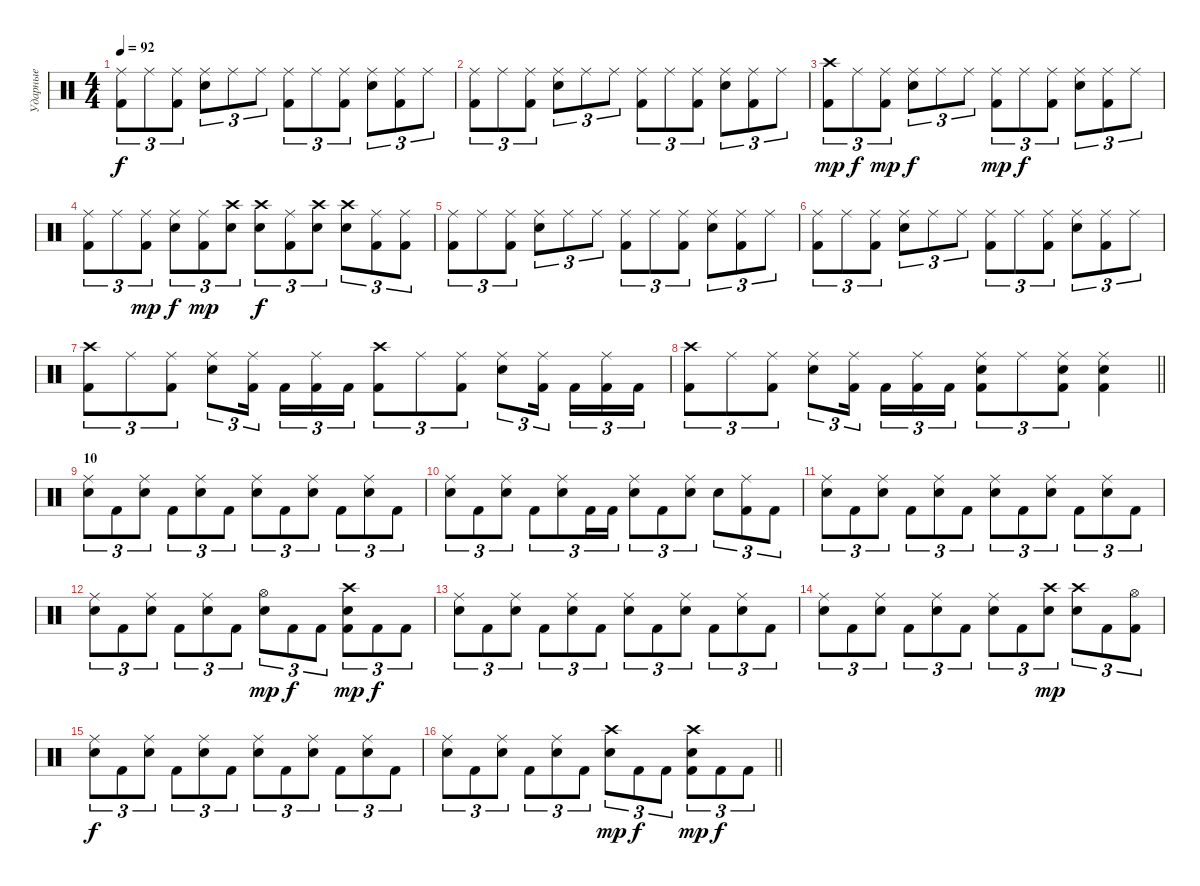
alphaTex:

\track ("Ударные" "Ударные") {instrument percussion}
\staff {score}
\articulation defaults
\ts (4 4)
\tempo 92
\clef neutral
\ks c
("Ride (middle)" "Kick (hit) 2").8{tu (3 2) dy f} "Ride (middle)".8{tu (3 2)} ("Ride (middle)" "Kick (hit) 2").8{tu (3 2)} ("Ride (middle)" "Electric Snare (hit)").8{tu (3 2)} "Ride (middle)".8{tu (3 2)} "Ride (middle)".8{tu (3 2)} ("Ride (middle)" "Kick (hit) 2").8{tu (3 2)} "Ride (middle)".8{tu (3 2)} ("Ride (middle)" "Kick (hit) 2").8{tu (3 2)} ("Ride (middle)" "Electric Snare (hit)").8{tu (3 2)} ("Ride (middle)" "Kick (hit) 2").8{tu (3 2)} "Ride (middle)".8{tu (3 2)} |
("Ride (middle)" "Kick (hit) 2").8{tu (3 2)} "Ride (middle)".8{tu (3 2)} ("Ride (middle)" "Kick (hit) 2").8{tu (3 2)} ("Ride (middle)" "Electric Snare (hit)").8{tu (3 2)} "Ride (middle)".8{tu (3 2)} "Ride (middle)".8{tu (3 2)} ("Ride (middle)" "Kick (hit) 2").8{tu (3 2)} "Ride (middle)".8{tu (3 2)} ("Ride (middle)" "Kick (hit) 2").8{tu (3 2)} ("Ride (middle)" "Electric Snare (hit)").8{tu (3 2)} ("Ride (middle)" "Kick (hit) 2").8{tu (3 2)} "Ride (middle)".8{tu (3 2)} |
("Crash high (hit)" "Kick (hit) 2").8{tu (3 2) dy mp} "Ride (middle)".8{tu (3 2) dy f} ("Ride (middle)" "Kick (hit) 2").8{tu (3 2) dy mp} ("Ride (middle)" "Electric Snare (hit)").8{tu (3 2) dy f} "Ride (middle)".8{tu (3 2)} "Ride (middle)".8{tu (3 2)} ("Ride (middle)" "Kick (hit) 2").8{tu (3 2) dy mp} "Ride (middle)".8{tu (3 2) dy f} ("Ride (middle)" "Kick (hit) 2").8{tu (3 2)} ("Ride (middle)" "Electric Snare (hit)").8{tu (3 2)} ("Ride (middle)" "Kick (hit) 2").8{tu (3 2)} "Ride (middle)".8{tu (3 2)} |
("Ride (middle)" "Kick (hit) 2").8{tu (3 2)} "Ride (middle)".8{tu (3 2)} ("Ride (middle)" "Kick (hit) 2").8{tu (3 2) dy mp} ("Ride (middle)" "Electric Snare (hit)").8{tu (3 2) dy f} ("Ride (middle)" "Kick (hit) 2").8{tu (3 2) dy mp} ("Crash high (hit)" "Electric Snare (hit)").8{tu (3 2)} ("Crash high (hit)" "Electric Snare (hit)").8{tu (3 2) dy f} ("Ride (middle)" "Kick (hit) 2").8{tu (3 2)} ("Crash high (hit)" "Electric Snare (hit)").8{tu (3 2)} ("Crash high (hit)" "Electric Snare (hit)").8{tu (3 2)} ("Ride (middle)" "Kick (hit) 2").8{tu (3 2)} ("Ride (middle)" "Kick (hit) 2").8{tu (3 2)} |
("Ride (middle)" "Kick (hit) 2").8{tu (3 2)} "Ride (middle)".8{tu (3 2)} ("Ride (middle)" "Kick (hit) 2").8{tu (3 2)} ("Ride (middle)" "Electric Snare (hit)").8{tu (3 2)} "Ride (middle)".8{tu (3 2)} "Ride (middle)".8{tu (3 2)} ("Ride (middle)" "Kick (hit) 2").8{tu (3 2)} "Ride (middle)".8{tu (3 2)} ("Ride (middle)" "Kick (hit) 2").8{tu (3 2)} ("Ride (middle)" "Electric Snare (hit)").8{tu (3 2)} ("Ride (middle)" "Kick (hit) 2").8{tu (3 2)} "Ride (middle)".8{tu (3 2)} |
("Ride (middle)" "Kick (hit) 2").8{tu (3 2)} "Ride (middle)".8{tu (3 2)} ("Ride (middle)" "Kick (hit) 2").8{tu (3 2)} ("Ride (middle)" "Electric Snare (hit)").8{tu (3 2)} "Ride (middle)".8{tu (3 2)} "Ride (middle)".8{tu (3 2)} ("Ride (middle)" "Kick (hit) 2").8{tu (3 2)} "Ride (middle)".8{tu (3 2)} ("Ride (middle)" "Kick (hit) 2").8{tu (3 2)} ("Ride (middle)" "Electric Snare (hit)").8{tu (3 2)} ("Ride (middle)" "Kick (hit) 2").8{tu (3 2)} "Ride (middle)".8{tu (3 2)} |
("Crash high (hit)" "Kick (hit) 2").8{tu (3 2)} "Ride (middle)".8{tu (3 2)} ("Ride (middle)" "Kick (hit) 2").8{tu (3 2)} ("Ride (middle)" "Electric Snare (hit)").8{tu (3 2)} ("Ride (middle)" "Kick (hit) 2").16{tu (3 2) beam splitsecondary} "Kick (hit) 2".16{tu (3 2)} ("Ride (middle)" "Kick (hit) 2").16{tu (3 2)} "Kick (hit) 2".16{tu (3 2)} ("Crash high (hit)" "Kick (hit) 2").8{tu (3 2)} "Ride (middle)".8{tu (3 2)} ("Ride (middle)" "Kick (hit) 2").8{tu (3 2)} ("Ride (middle)" "Electric Snare (hit)").8{tu (3 2)} ("Ride (middle)" "Kick (hit) 2").16{tu (3 2) beam splitsecondary} "Kick (hit) 2".16{tu (3 2)} ("Ride (middle)" "Kick (hit) 2").16{tu (3 2)} "Kick (hit) 2".16{tu (3 2)} |
\barLineRight lightlight
("Crash high (hit)" "Kick (hit) 2").8{tu (3 2)} "Ride (middle)".8{tu (3 2)} ("Ride (middle)" "Kick (hit) 2").8{tu (3 2)} ("Ride (middle)" "Electric Snare (hit)").8{tu (3 2)} ("Ride (middle)" "Kick (hit) 2").16{tu (3 2) beam splitsecondary} "Kick (hit) 2".16{tu (3 2)} ("Ride (middle)" "Kick (hit) 2").16{tu (3 2)} "Kick (hit) 2".16{tu (3 2)} ("Ride (middle)" "Electric Snare (hit)" "Kick (hit) 2").8{tu (3 2)} "Ride (middle)".8{tu (3 2)} ("Ride (middle)" "Electric Snare (hit)" "Kick (hit) 2").8{tu (3 2)} ("Ride (middle)" "Electric Snare (hit)" "Kick (hit) 2").4 |
\section ("" "10")
("Ride (middle)" "Electric Snare (hit)").8{tu (3 2)} "Kick (hit) 2".8{tu (3 2)} ("Ride (middle)" "Electric Snare (hit)").8{tu (3 2)} "Kick (hit) 2".8{tu (3 2)} ("Ride (middle)" "Electric Snare (hit)").8{tu (3 2)} "Kick (hit) 2".8{tu (3 2)} ("Ride (middle)" "Electric Snare (hit)").8{tu (3 2)} "Kick (hit) 2".8{tu (3 2)} ("Ride (middle)" "Electric Snare (hit)").8{tu (3 2)} "Kick (hit) 2".8{tu (3 2)} ("Ride (middle)" "Electric Snare (hit)").8{tu (3 2)} "Kick (hit) 2".8{tu (3 2)} |
("Ride (middle)" "Electric Snare (hit)").8{tu (3 2)} "Kick (hit) 2".8{tu (3 2)} ("Ride (middle)" "Electric Snare (hit)").8{tu (3 2)} "Kick (hit) 2".8{tu (3 2)} ("Ride (middle)" "Electric Snare (hit)").8{tu (3 2)} "Kick (hit) 2".16{tu (3 2)} "Kick (hit) 2".16{tu (3 2)} ("Ride (middle)" "Electric Snare (hit)").8{tu (3 2)} "Kick (hit) 2".8{tu (3 2)} ("Ride (middle)" "Electric Snare (hit)").8{tu (3 2)} "Electric Snare (hit)".8{tu (3 2)} ("Ride (middle)" "Kick (hit) 2").8{tu (3 2)} "Kick (hit) 2".8{tu (3 2)} |
("Ride (middle)" "Electric Snare (hit)").8{tu (3 2)} "Kick (hit) 2".8{tu (3 2)} ("Ride (middle)" "Electric Snare (hit)").8{tu (3 2)} "Kick (hit) 2".8{tu (3 2)} ("Ride (middle)" "Electric Snare (hit)").8{tu (3 2)} "Kick (hit) 2".8{tu (3 2)} ("Ride (middle)" "Electric Snare (hit)").8{tu (3 2)} "Kick (hit) 2".8{tu (3 2)} ("Ride (middle)" "Electric Snare (hit)").8{tu (3 2)} "Kick (hit) 2".8{tu (3 2)} ("Ride (middle)" "Electric Snare (hit)").8{tu (3 2)} "Kick (hit) 2".8{tu (3 2)} |
("Ride (middle)" "Electric Snare (hit)").8{tu (3 2)} "Kick (hit) 2".8{tu (3 2)} ("Ride (middle)" "Electric Snare (hit)").8{tu (3 2)} "Kick (hit) 2".8{tu (3 2)} ("Ride (middle)" "Electric Snare (hit)").8{tu (3 2)} "Kick (hit) 2".8{tu (3 2)} ("Hi-Hat (open)" "Electric Snare (hit)").8{tu (3 2) dy mp} "Kick (hit) 2".8{tu (3 2) dy f} "Kick (hit) 2".8{tu (3 2)} ("Crash high (hit)" "Electric Snare (hit)" "Kick (hit) 2").8{tu (3 2) dy mp} "Kick (hit) 2".8{tu (3 2) dy f} "Kick (hit) 2".8{tu (3 2)} |
("Ride (middle)" "Electric Snare (hit)").8{tu (3 2)} "Kick (hit) 2".8{tu (3 2)} ("Ride (middle)" "Electric Snare (hit)").8{tu (3 2)} "Kick (hit) 2".8{tu (3 2)} ("Ride (middle)" "Electric Snare (hit)").8{tu (3 2)} "Kick (hit) 2".8{tu (3 2)} ("Ride (middle)" "Electric Snare (hit)").8{tu (3 2)} "Kick (hit) 2".8{tu (3 2)} ("Ride (middle)" "Electric Snare (hit)").8{tu (3 2)} "Kick (hit) 2".8{tu (3 2)} ("Ride (middle)" "Electric Snare (hit)").8{tu (3 2)} "Kick (hit) 2".8{tu (3 2)} |
("Ride (middle)" "Electric Snare (hit)").8{tu (3 2)} "Kick (hit) 2".8{tu (3 2)} ("Ride (middle)" "Electric Snare (hit)").8{tu (3 2)} "Kick (hit) 2".8{tu (3 2)} ("Ride (middle)" "Electric Snare (hit)").8{tu (3 2)} "Kick (hit) 2".8{tu (3 2)} ("Ride (middle)" "Electric Snare (hit)").8{tu (3 2)} "Kick (hit) 2".8{tu (3 2)} ("Crash high (hit)" "Electric Snare (hit)").8{tu (3 2) dy mp} ("Crash high (hit)" "Electric Snare (hit)").8{tu (3 2)} "Kick (hit) 2".8{tu (3 2)} ("Hi-Hat (open)" "Kick (hit) 2").8{tu (3 2)} |
("Ride (middle)" "Electric Snare (hit)").8{tu (3 2) dy f} "Kick (hit) 2".8{tu (3 2)} ("Ride (middle)" "Electric Snare (hit)").8{tu (3 2)} "Kick (hit) 2".8{tu (3 2)} ("Ride (middle)" "Electric Snare (hit)").8{tu (3 2)} "Kick (hit) 2".8{tu (3 2)} ("Ride (middle)" "Electric Snare (hit)").8{tu (3 2)} "Kick (hit) 2".8{tu (3 2)} ("Ride (middle)" "Electric Snare (hit)").8{tu (3 2)} "Kick (hit) 2".8{tu (3 2)} ("Ride (middle)" "Electric Snare (hit)").8{tu (3 2)} "Kick (hit) 2".8{tu (3 2)} |
\barLineRight lightlight
("Ride (middle)" "Electric Snare (hit)").8{tu (3 2)} "Kick (hit) 2".8{tu (3 2)} ("Ride (middle)" "Electric Snare (hit)").8{tu (3 2)} "Kick (hit) 2".8{tu (3 2)} ("Ride (middle)" "Electric Snare (hit)").8{tu (3 2)} "Kick (hit) 2".8{tu (3 2)} ("Crash high (hit)" "Electric Snare (hit)").8{tu (3 2) dy mp} "Kick (hit) 2".8{tu (3 2) dy f} "Kick (hit) 2".8{tu (3 2)} ("Crash high (hit)" "Electric Snare (hit)" "Kick (hit) 2").8{tu (3 2) dy mp} "Kick (hit) 2".8{tu (3 2) dy f} "Kick (hit) 2".8{tu (3 2)}
